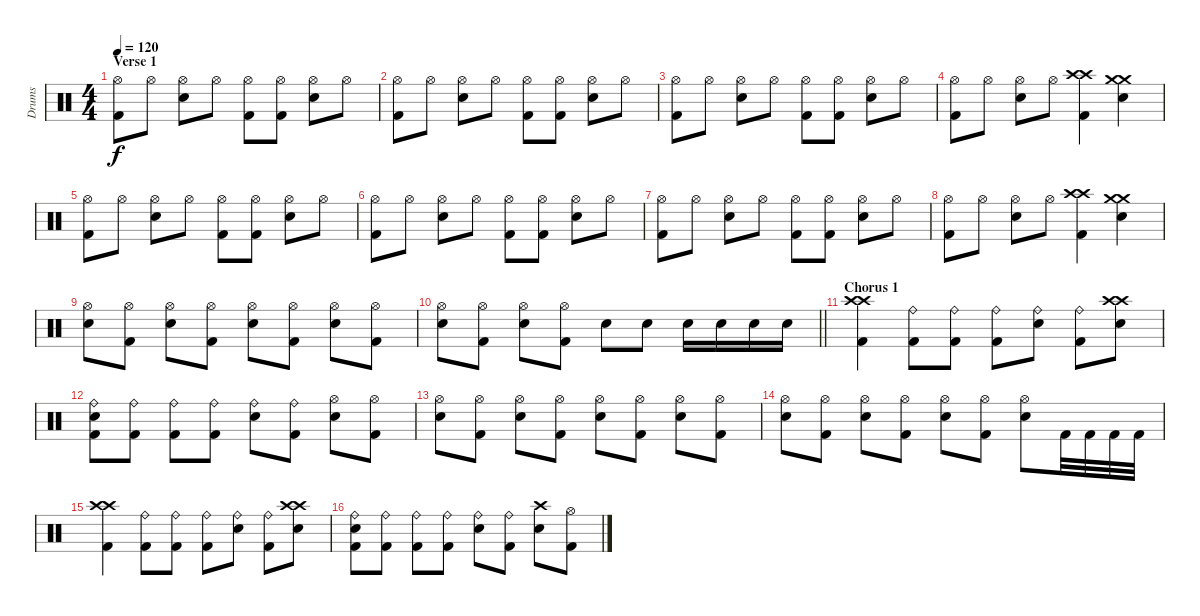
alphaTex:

\track ("Drums" "Drums") {instrument percussion}
\staff {score}
\articulation defaults
\ts (4 4)
\section ("" "Verse 1")
\tempo 120
\clef neutral
\ks c
("Hi-Hat (open)" "Kick (hit) 2").8{dy f} "Hi-Hat (open)".8 ("Hi-Hat (open)" "Electric Snare (hit)").8 "Hi-Hat (open)".8 ("Hi-Hat (open)" "Kick (hit) 2").8 ("Hi-Hat (open)" "Kick (hit) 2").8 ("Hi-Hat (open)" "Electric Snare (hit)").8 "Hi-Hat (open)".8 |
("Hi-Hat (open)" "Kick (hit) 2").8 "Hi-Hat (open)".8 ("Hi-Hat (open)" "Electric Snare (hit)").8 "Hi-Hat (open)".8 ("Hi-Hat (open)" "Kick (hit) 2").8 ("Hi-Hat (open)" "Kick (hit) 2").8 ("Hi-Hat (open)" "Electric Snare (hit)").8 "Hi-Hat (open)".8 |
("Hi-Hat (open)" "Kick (hit) 2").8 "Hi-Hat (open)".8 ("Hi-Hat (open)" "Electric Snare (hit)").8 "Hi-Hat (open)".8 ("Hi-Hat (open)" "Kick (hit) 2").8 ("Hi-Hat (open)" "Kick (hit) 2").8 ("Hi-Hat (open)" "Electric Snare (hit)").8 "Hi-Hat (open)".8 |
("Hi-Hat (open)" "Kick (hit) 2").8 "Hi-Hat (open)".8 ("Hi-Hat (open)" "Electric Snare (hit)").8 "Hi-Hat (open)".8 ("Crash high (hit)" "Crash high (hit)" "Kick (hit) 2").4 ("Crash medium (hit)" "Crash medium (hit)" "Electric Snare (hit)").4 |
("Hi-Hat (open)" "Kick (hit) 2").8 "Hi-Hat (open)".8 ("Hi-Hat (open)" "Electric Snare (hit)").8 "Hi-Hat (open)".8 ("Hi-Hat (open)" "Kick (hit) 2").8 ("Hi-Hat (open)" "Kick (hit) 2").8 ("Hi-Hat (open)" "Electric Snare (hit)").8 "Hi-Hat (open)".8 |
("Hi-Hat (open)" "Kick (hit) 2").8 "Hi-Hat (open)".8 ("Hi-Hat (open)" "Electric Snare (hit)").8 "Hi-Hat (open)".8 ("Hi-Hat (open)" "Kick (hit) 2").8 ("Hi-Hat (open)" "Kick (hit) 2").8 ("Hi-Hat (open)" "Electric Snare (hit)").8 "Hi-Hat (open)".8 |
("Hi-Hat (open)" "Kick (hit) 2").8 "Hi-Hat (open)".8 ("Hi-Hat (open)" "Electric Snare (hit)").8 "Hi-Hat (open)".8 ("Hi-Hat (open)" "Kick (hit) 2").8 ("Hi-Hat (open)" "Kick (hit) 2").8 ("Hi-Hat (open)" "Electric Snare (hit)").8 "Hi-Hat (open)".8 |
("Hi-Hat (open)" "Kick (hit) 2").8 "Hi-Hat (open)".8 ("Hi-Hat (open)" "Electric Snare (hit)").8 "Hi-Hat (open)".8 ("Crash high (hit)" "Crash high (hit)" "Kick (hit) 2").4 ("Crash medium (hit)" "Crash medium (hit)" "Electric Snare (hit)").4 |
("Hi-Hat (open)" "Electric Snare (hit)").8 ("Hi-Hat (open)" "Kick (hit) 2").8 ("Hi-Hat (open)" "Electric Snare (hit)").8 ("Hi-Hat (open)" "Kick (hit) 2").8 ("Hi-Hat (open)" "Electric Snare (hit)").8 ("Hi-Hat (open)" "Kick (hit) 2").8 ("Hi-Hat (open)" "Electric Snare (hit)").8 ("Hi-Hat (open)" "Kick (hit) 2").8 |
\barLineRight lightlight
("Hi-Hat (open)" "Electric Snare (hit)").8 ("Hi-Hat (open)" "Kick (hit) 2").8 ("Hi-Hat (open)" "Electric Snare (hit)").8 ("Hi-Hat (open)" "Kick (hit) 2").8 "Electric Snare (hit)".8 "Electric Snare (hit)".8 "Electric Snare (hit)".16 "Electric Snare (hit)".16 "Electric Snare (hit)".16 "Electric Snare (hit)".16 |
\section ("" "Chorus 1")
("Crash high (hit)" "Crash high (hit)" "Kick (hit) 2").4 ("Ride (bell)" "Kick (hit) 2").8 ("Ride (bell)" "Kick (hit) 2").8 ("Ride (bell)" "Kick (hit) 2").8 ("Ride (bell)" "Electric Snare (hit)").8 ("Ride (bell)" "Kick (hit) 2").8 ("Crash high (hit)" "Crash high (hit)" "Electric Snare (hit)").8 |
("Ride (bell)" "Electric Snare (hit)" "Kick (hit) 2").8 ("Ride (bell)" "Kick (hit) 2").8 ("Ride (bell)" "Kick (hit) 2").8 ("Ride (bell)" "Kick (hit) 2").8 ("Ride (bell)" "Electric Snare (hit)").8 ("Ride (bell)" "Kick (hit) 2").8 ("Hi-Hat (open)" "Electric Snare (hit)").8 ("Hi-Hat (open)" "Kick (hit) 2").8 |
("Hi-Hat (open)" "Electric Snare (hit)").8 ("Hi-Hat (open)" "Kick (hit) 2").8 ("Hi-Hat (open)" "Electric Snare (hit)").8 ("Hi-Hat (open)" "Kick (hit) 2").8 ("Hi-Hat (open)" "Electric Snare (hit)").8 ("Hi-Hat (open)" "Kick (hit) 2").8 ("Hi-Hat (open)" "Electric Snare (hit)").8 ("Hi-Hat (open)" "Kick (hit) 2").8 |
("Hi-Hat (open)" "Electric Snare (hit)").8 ("Hi-Hat (open)" "Kick (hit) 2").8 ("Hi-Hat (open)" "Electric Snare (hit)").8 ("Hi-Hat (open)" "Kick (hit) 2").8 ("Hi-Hat (open)" "Electric Snare (hit)").8 ("Hi-Hat (open)" "Kick (hit) 2").8 ("Hi-Hat (open)" "Electric Snare (hit)").8 "Kick (hit) 2".32 "Kick (hit) 2".32 "Kick (hit) 2".32 "Kick (hit) 2".32 |
("Crash high (hit)" "Crash high (hit)" "Kick (hit) 2").4 ("Ride (bell)" "Kick (hit) 2").8 ("Ride (bell)" "Kick (hit) 2").8 ("Ride (bell)" "Kick (hit) 2").8 ("Ride (bell)" "Electric Snare (hit)").8 ("Ride (bell)" "Kick (hit) 2").8 ("Crash high (hit)" "Crash high (hit)" "Electric Snare (hit)").8 |
("Ride (bell)" "Electric Snare (hit)" "Kick (hit) 2").8 ("Ride (bell)" "Kick (hit) 2").8 ("Ride (bell)" "Kick (hit) 2").8 ("Ride (bell)" "Kick (hit) 2").8 ("Ride (bell)" "Electric Snare (hit)").8 ("Ride (bell)" "Kick (hit) 2").8 ("Crash high (hit)" "Electric Snare (hit)").8 ("Hi-Hat (open)" "Kick (hit) 2").8
